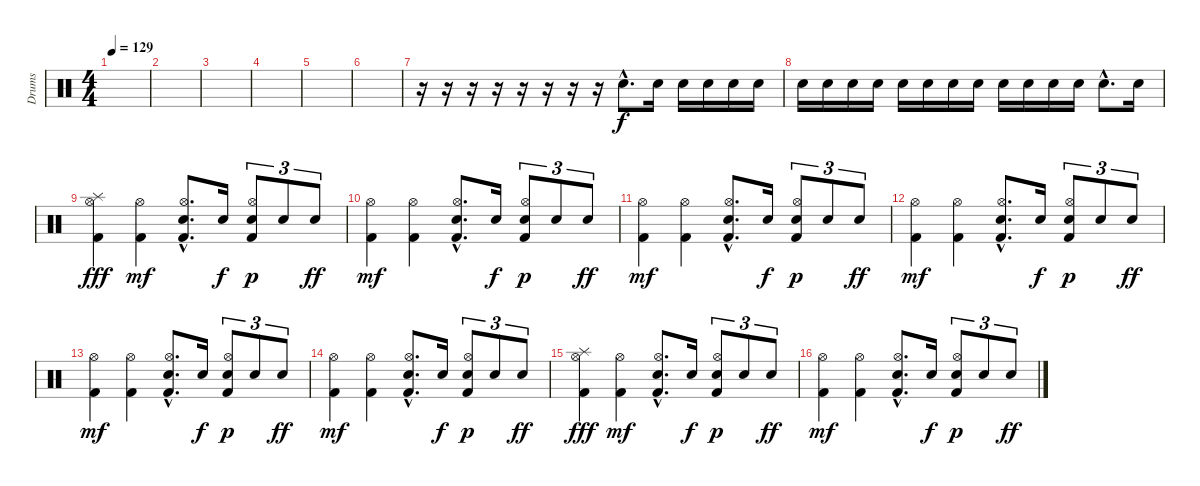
\track ("Drums" "Drums") {instrument percussion}
\staff {score}
\articulation defaults
\ts (4 4)
\tempo 129
\clef neutral
\ks c
|
|
|
|
|
|
r.16 r.16 r.16 r.16 r.16 r.16 r.16 r.16 "Electric Snare (hit)"{hac}.8{d} "Electric Snare (hit)".16 "Electric Snare (hit)".16 "Electric Snare (hit)".16 "Electric Snare (hit)".16 "Electric Snare (hit)".16 |
"Electric Snare (hit)".16 "Electric Snare (hit)".16 "Electric Snare (hit)".16 "Electric Snare (hit)".16 "Electric Snare (hit)".16 "Electric Snare (hit)".16 "Electric Snare (hit)".16 "Electric Snare (hit)".16 "Electric Snare (hit)".16 "Electric Snare (hit)".16 "Electric Snare (hit)".16 "Electric Snare (hit)".16 "Electric Snare (hit)"{hac}.8{d} "Electric Snare (hit)".16 |
("Hi-Hat (open)" "Splash (hit)" "Kick (hit) 2").4{dy fff} ("Hi-Hat (open)" "Kick (hit) 2").4{dy mf} ("Hi-Hat (open)"{hac} "Electric Snare (hit)"{hac} "Kick (hit) 2"{hac}).8{d} "Electric Snare (hit)".16{dy f} ("Hi-Hat (open)" "Electric Snare (hit)" "Kick (hit) 2").8{tu (3 2) dy p} "Electric Snare (hit)".8{tu (3 2)} "Electric Snare (hit)".8{tu (3 2) dy ff} |
("Hi-Hat (open)" "Kick (hit) 2").4{dy mf} ("Hi-Hat (open)" "Kick (hit) 2").4 ("Hi-Hat (open)"{hac} "Electric Snare (hit)"{hac} "Kick (hit) 2"{hac}).8{d} "Electric Snare (hit)".16{dy f} ("Hi-Hat (open)" "Electric Snare (hit)" "Kick (hit) 2").8{tu (3 2) dy p} "Electric Snare (hit)".8{tu (3 2)} "Electric Snare (hit)".8{tu (3 2) dy ff} |
("Hi-Hat (open)" "Kick (hit) 2").4{dy mf} ("Hi-Hat (open)" "Kick (hit) 2").4 ("Hi-Hat (open)"{hac} "Electric Snare (hit)"{hac} "Kick (hit) 2"{hac}).8{d} "Electric Snare (hit)".16{dy f} ("Hi-Hat (open)" "Electric Snare (hit)" "Kick (hit) 2").8{tu (3 2) dy p} "Electric Snare (hit)".8{tu (3 2)} "Electric Snare (hit)".8{tu (3 2) dy ff} |
("Hi-Hat (open)" "Kick (hit) 2").4{dy mf} ("Hi-Hat (open)" "Kick (hit) 2").4 ("Hi-Hat (open)"{hac} "Electric Snare (hit)"{hac} "Kick (hit) 2"{hac}).8{d} "Electric Snare (hit)".16{dy f} ("Hi-Hat (open)" "Electric Snare (hit)" "Kick (hit) 2").8{tu (3 2) dy p} "Electric Snare (hit)".8{tu (3 2)} "Electric Snare (hit)".8{tu (3 2) dy ff} |
("Hi-Hat (open)" "Kick (hit) 2").4{dy mf} ("Hi-Hat (open)" "Kick (hit) 2").4 ("Hi-Hat (open)"{hac} "Electric Snare (hit)"{hac} "Kick (hit) 2"{hac}).8{d} "Electric Snare (hit)".16{dy f} ("Hi-Hat (open)" "Electric Snare (hit)" "Kick (hit) 2").8{tu (3 2) dy p} "Electric Snare (hit)".8{tu (3 2)} "Electric Snare (hit)".8{tu (3 2) dy ff} |
("Hi-Hat (open)" "Kick (hit) 2").4{dy mf} ("Hi-Hat (open)" "Kick (hit) 2").4 ("Hi-Hat (open)"{hac} "Electric Snare (hit)"{hac} "Kick (hit) 2"{hac}).8{d} "Electric Snare (hit)".16{dy f} ("Hi-Hat (open)" "Electric Snare (hit)" "Kick (hit) 2").8{tu (3 2) dy p} "Electric Snare (hit)".8{tu (3 2)} "Electric Snare (hit)".8{tu (3 2) dy ff} |
("Hi-Hat (open)" "Splash (hit)" "Kick (hit) 2").4{dy fff} ("Hi-Hat (open)" "Kick (hit) 2").4{dy mf} ("Hi-Hat (open)"{hac} "Electric Snare (hit)"{hac} "Kick (hit) 2"{hac}).8{d} "Electric Snare (hit)".16{dy f} ("Hi-Hat (open)" "Electric Snare (hit)" "Kick (hit) 2").8{tu (3 2) dy p} "Electric Snare (hit)".8{tu (3 2)} "Electric Snare (hit)".8{tu (3 2) dy ff} |
("Hi-Hat (open)" "Kick (hit) 2").4{dy mf} ("Hi-Hat (open)" "Kick (hit) 2").4 ("Hi-Hat (open)"{hac} "Electric Snare (hit)"{hac} "Kick (hit) 2"{hac}).8{d} "Electric Snare (hit)".16{dy f} ("Hi-Hat (open)" "Electric Snare (hit)" "Kick (hit) 2").8{tu (3 2) dy p} "Electric Snare (hit)".8{tu (3 2)} "Electric Snare (hit)".8{tu (3 2) dy ff}
